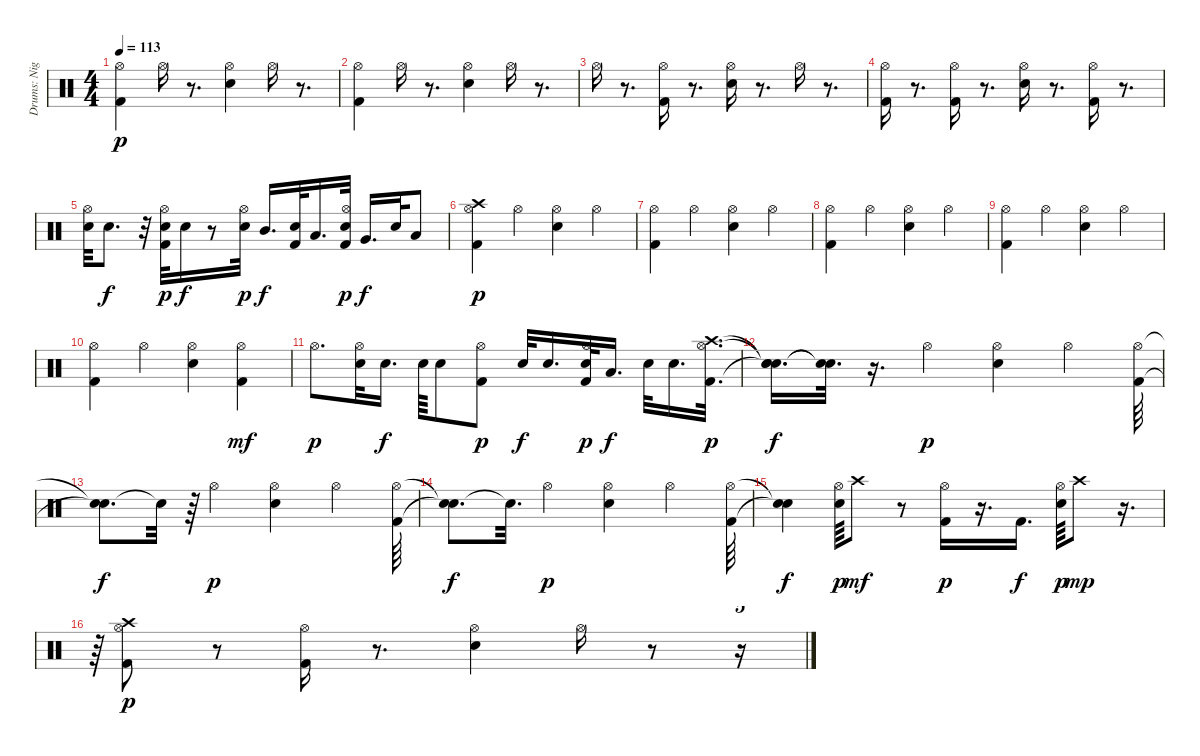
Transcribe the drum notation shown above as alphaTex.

\track ("Drums: Nigel Olsson" "Drums: Nig") {instrument percussion}
\staff {score}
\articulation defaults
\ts (4 4)
\tempo 113
\clef neutral
\ks c
("Kick (hit) 2" "Hi-Hat (open)").4{dy p} "Hi-Hat (open)".16 r.8{d} ("Snare (hit) 2" "Hi-Hat (open)").4 "Hi-Hat (open)".16 r.8{d} |
("Kick (hit) 2" "Hi-Hat (open)").4 "Hi-Hat (open)".16 r.8{d} ("Snare (hit) 2" "Hi-Hat (open)").4 "Hi-Hat (open)".16 r.8{d} |
"Hi-Hat (open)".16 r.8{d} ("Kick (hit) 2" "Hi-Hat (open)").16 r.8{d} ("Snare (hit) 2" "Hi-Hat (open)").16 r.8{d} "Hi-Hat (open)".16 r.8{d} |
("Kick (hit) 2" "Hi-Hat (open)").16 r.8{d} ("Kick (hit) 2" "Hi-Hat (open)").16 r.8{d} ("Snare (hit) 2" "Hi-Hat (open)").16 r.8{d} ("Kick (hit) 2" "Hi-Hat (open)").16 r.8{d} |
("Snare (hit) 2" "Hi-Hat (open)").32 "Electric Snare (hit)".8{d dy f} r.32 ("Snare (hit) 2" "Kick (hit) 2" "Hi-Hat (open)").32{dy p} "Electric Snare (hit)".16{dy f} r.8 ("Snare (hit) 2" "Hi-Hat (open)").32{dy p} "Mid Tom (hit)".16{d dy f} ("Snare (hit) 2" "Kick (hit) 2").32 "Low Tom (hit)".16{d} ("Snare (hit) 2" "Kick (hit) 2" "Hi-Hat (open)").32{dy p} "Very Low Tom (hit)".16{d dy f} "Snare (hit) 2".32 "Low Floor Tom (hit)".8 |
("Kick (hit) 2" "Hi-Hat (open)" "Crash high (hit)").4{dy p} "Hi-Hat (open)".4 ("Snare (hit) 2" "Hi-Hat (open)").4 "Hi-Hat (open)".4 |
("Kick (hit) 2" "Hi-Hat (open)").4 "Hi-Hat (open)".4 ("Snare (hit) 2" "Hi-Hat (open)").4 "Hi-Hat (open)".4 |
("Kick (hit) 2" "Hi-Hat (open)").4 "Hi-Hat (open)".4 ("Snare (hit) 2" "Hi-Hat (open)").4 "Hi-Hat (open)".4 |
("Kick (hit) 2" "Hi-Hat (open)").4 "Hi-Hat (open)".4 ("Snare (hit) 2" "Hi-Hat (open)").4 "Hi-Hat (open)".4 |
("Kick (hit) 2" "Hi-Hat (open)").4 "Hi-Hat (open)".4 ("Snare (hit) 2" "Hi-Hat (open)").4 ("Hi-Hat (open)" "Kick (hit) 2").4{dy mf} |
"Hi-Hat (open)".8{d dy p} ("Hi-Hat (open)" "Snare (hit) 2").32 "Electric Snare (hit)".16{d dy f} "Snare (hit) 2".64 "Electric Snare (hit)".8 ("Hi-Hat (open)" "Kick (hit) 2").8{dy p} "Snare (hit) 2".32{dy f} "Electric Snare (hit)".16{d} ("Kick (hit) 2" "Hi-Hat (open)" "Snare (hit) 2").32{dy p} "Low Tom (hit)".16{d dy f} "Snare (hit) 2".32 "Electric Snare (hit)".16{d} ("Hi-Hat (open)" "Crash high (hit)" "Kick (hit) 2").32{d dy p} |
("Snare (hit)"{t} "Snare (hit)"{t} "Snare (hit)"{t}).16{d dy f} ("Snare (hit)"{t} "Snare (hit)"{t}).32{d} r.16{d} "Hi-Hat (open)".4{dy p} ("Hi-Hat (open)" "Snare (hit) 2").4 "Hi-Hat (open)".4 ("Hi-Hat (open)" "Kick (hit) 2").64 |
("Snare (hit)"{t} "Snare (hit)"{t}).8{d dy f} "Snare (hit)"{t}.32 r.64 "Hi-Hat (open)".4{dy p} ("Hi-Hat (open)" "Snare (hit) 2").4 "Hi-Hat (open)".4 ("Kick (hit) 2" "Hi-Hat (open)").64 |
("Snare (hit)"{t} "Snare (hit)"{t}).8{d dy f} "Snare (hit)"{t}.32{d} "Hi-Hat (open)".4{dy p} ("Snare (hit) 2" "Hi-Hat (open)").4 "Hi-Hat (open)".4 ("Hi-Hat (open)" "Kick (hit) 2").64 |
("Snare (hit)"{t} "Snare (hit)"{t}).4{dy f} ("Snare (hit) 2" "Hi-Hat (open)").64{dy p} "Crash high (hit)".8{dy mf} r.8 ("Hi-Hat (open)" "Kick (hit) 2").16{dy p} r.16{d} "Kick (hit) 2".16{d dy f} ("Snare (hit) 2" "Hi-Hat (open)").64{dy p} "Crash high (hit)".8{dy mp} r.16{d} |
r.64{tu (5 4)} ("Crash high (hit)" "Kick (hit) 2" "Hi-Hat (open)").8{dy p} r.8 ("Kick (hit) 2" "Hi-Hat (open)").16 r.8{d} ("Snare (hit) 2" "Hi-Hat (open)").4 "Hi-Hat (open)".16 r.8 r.16{tu (5 4)}
